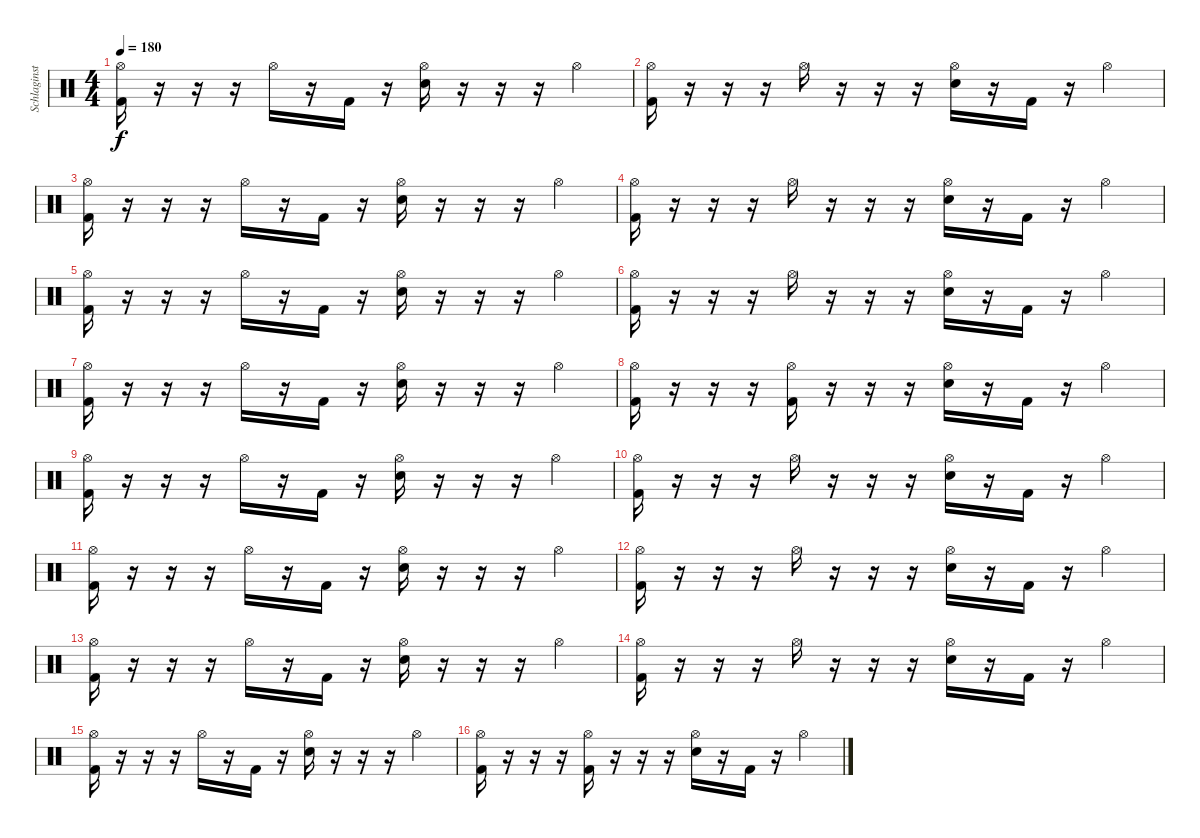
\track ("Schlaginstrumente - Auswahl" "Schlaginst") {instrument percussion}
\staff {score}
\articulation defaults
\ts (4 4)
\tempo 180
\clef neutral
\ks c
("Kick (hit) 2" "Hi-Hat (open)").16{dy f} r.16 r.16 r.16 "Hi-Hat (open)".16 r.16 "Kick (hit) 2".16 r.16 ("Snare (hit) 2" "Hi-Hat (open)").16 r.16 r.16 r.16 "Hi-Hat (open)".4 |
("Kick (hit) 2" "Hi-Hat (open)").16 r.16 r.16 r.16 "Hi-Hat (open)".16 r.16 r.16 r.16 ("Snare (hit) 2" "Hi-Hat (open)").16 r.16 "Kick (hit) 2".16 r.16 "Hi-Hat (open)".4 |
("Kick (hit) 2" "Hi-Hat (open)").16 r.16 r.16 r.16 "Hi-Hat (open)".16 r.16 "Kick (hit) 2".16 r.16 ("Snare (hit) 2" "Hi-Hat (open)").16 r.16 r.16 r.16 "Hi-Hat (open)".4 |
("Kick (hit) 2" "Hi-Hat (open)").16 r.16 r.16 r.16 "Hi-Hat (open)".16 r.16 r.16 r.16 ("Snare (hit) 2" "Hi-Hat (open)").16 r.16 "Kick (hit) 2".16 r.16 "Hi-Hat (open)".4 |
("Kick (hit) 2" "Hi-Hat (open)").16 r.16 r.16 r.16 "Hi-Hat (open)".16 r.16 "Kick (hit) 2".16 r.16 ("Snare (hit) 2" "Hi-Hat (open)").16 r.16 r.16 r.16 "Hi-Hat (open)".4 |
("Kick (hit) 2" "Hi-Hat (open)").16 r.16 r.16 r.16 "Hi-Hat (open)".16 r.16 r.16 r.16 ("Snare (hit) 2" "Hi-Hat (open)").16 r.16 "Kick (hit) 2".16 r.16 "Hi-Hat (open)".4 |
("Kick (hit) 2" "Hi-Hat (open)").16 r.16 r.16 r.16 "Hi-Hat (open)".16 r.16 "Kick (hit) 2".16 r.16 ("Snare (hit) 2" "Hi-Hat (open)").16 r.16 r.16 r.16 "Hi-Hat (open)".4 |
("Kick (hit) 2" "Hi-Hat (open)").16 r.16 r.16 r.16 ("Kick (hit) 2" "Hi-Hat (open)").16 r.16 r.16 r.16 ("Snare (hit) 2" "Hi-Hat (open)").16 r.16 "Kick (hit) 2".16 r.16 "Hi-Hat (open)".4 |
("Kick (hit) 2" "Hi-Hat (open)").16 r.16 r.16 r.16 "Hi-Hat (open)".16 r.16 "Kick (hit) 2".16 r.16 ("Snare (hit) 2" "Hi-Hat (open)").16 r.16 r.16 r.16 "Hi-Hat (open)".4 |
("Kick (hit) 2" "Hi-Hat (open)").16 r.16 r.16 r.16 "Hi-Hat (open)".16 r.16 r.16 r.16 ("Snare (hit) 2" "Hi-Hat (open)").16 r.16 "Kick (hit) 2".16 r.16 "Hi-Hat (open)".4 |
("Kick (hit) 2" "Hi-Hat (open)").16 r.16 r.16 r.16 "Hi-Hat (open)".16 r.16 "Kick (hit) 2".16 r.16 ("Snare (hit) 2" "Hi-Hat (open)").16 r.16 r.16 r.16 "Hi-Hat (open)".4 |
("Kick (hit) 2" "Hi-Hat (open)").16 r.16 r.16 r.16 "Hi-Hat (open)".16 r.16 r.16 r.16 ("Snare (hit) 2" "Hi-Hat (open)").16 r.16 "Kick (hit) 2".16 r.16 "Hi-Hat (open)".4 |
("Kick (hit) 2" "Hi-Hat (open)").16 r.16 r.16 r.16 "Hi-Hat (open)".16 r.16 "Kick (hit) 2".16 r.16 ("Snare (hit) 2" "Hi-Hat (open)").16 r.16 r.16 r.16 "Hi-Hat (open)".4 |
("Kick (hit) 2" "Hi-Hat (open)").16 r.16 r.16 r.16 "Hi-Hat (open)".16 r.16 r.16 r.16 ("Snare (hit) 2" "Hi-Hat (open)").16 r.16 "Kick (hit) 2".16 r.16 "Hi-Hat (open)".4 |
("Kick (hit) 2" "Hi-Hat (open)").16 r.16 r.16 r.16 "Hi-Hat (open)".16 r.16 "Kick (hit) 2".16 r.16 ("Snare (hit) 2" "Hi-Hat (open)").16 r.16 r.16 r.16 "Hi-Hat (open)".4 |
("Kick (hit) 2" "Hi-Hat (open)").16 r.16 r.16 r.16 ("Kick (hit) 2" "Hi-Hat (open)").16 r.16 r.16 r.16 ("Snare (hit) 2" "Hi-Hat (open)").16 r.16 "Kick (hit) 2".16 r.16 "Hi-Hat (open)".4
